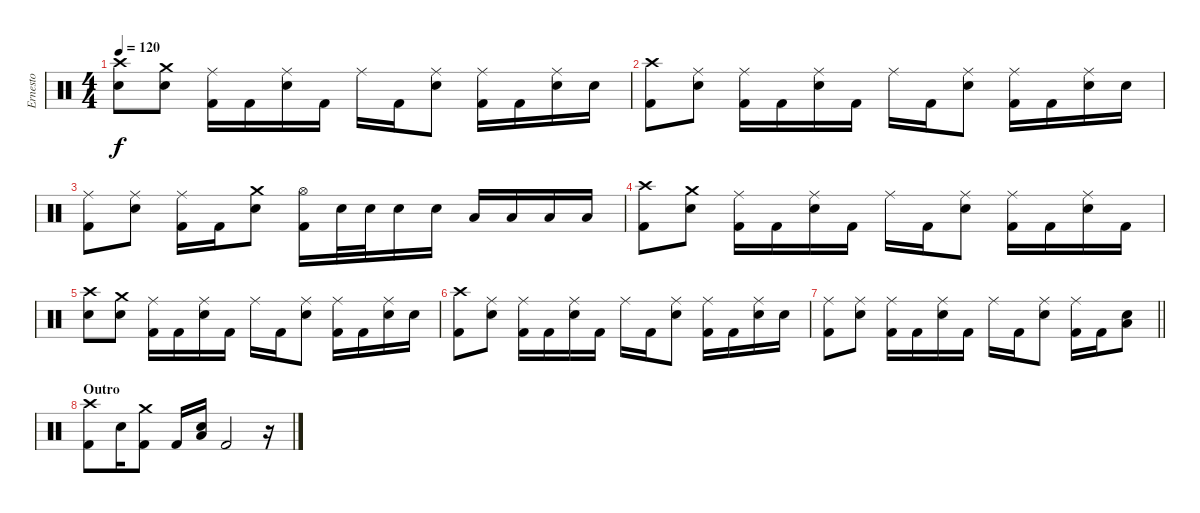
\track ("Ernesto" "Ernesto") {instrument percussion}
\staff
\articulation defaults
\ts (4 4)
\tempo 120
\clef neutral
\ks c
("Crash high (hit)" "Electric Snare (hit)").8{dy f} ("Crash medium (hit)" "Electric Snare (hit)").8 ("Ride (middle)" "Kick (hit) 2").16 "Kick (hit) 2".16 ("Ride (middle)" "Electric Snare (hit)").16 "Kick (hit) 2".16 "Ride (middle)".16 "Kick (hit) 2".16 ("Ride (middle)" "Electric Snare (hit)").8 ("Ride (middle)" "Kick (hit) 2").16 "Kick (hit) 2".16 ("Ride (middle)" "Electric Snare (hit)").16 "Electric Snare (hit)".16 |
("Crash high (hit)" "Kick (hit) 2").8 ("Ride (middle)" "Electric Snare (hit)").8 ("Ride (middle)" "Kick (hit) 2").16 "Kick (hit) 2".16 ("Ride (middle)" "Electric Snare (hit)").16 "Kick (hit) 2".16 "Ride (middle)".16 "Kick (hit) 2".16 ("Ride (middle)" "Electric Snare (hit)").8 ("Ride (middle)" "Kick (hit) 2").16 "Kick (hit) 2".16 ("Ride (middle)" "Electric Snare (hit)").16 "Electric Snare (hit)".16 |
("Ride (middle)" "Kick (hit) 2").8 ("Ride (middle)" "Electric Snare (hit)").8 ("Ride (middle)" "Kick (hit) 2").16 "Kick (hit) 2".16 ("Crash medium (hit)" "Electric Snare (hit)").8 ("Hi-Hat (open)" "Kick (hit) 2").16 "Electric Snare (hit)".32 "Electric Snare (hit)".32 "Electric Snare (hit)".16 "Electric Snare (hit)".16 "Low Tom (hit)".16 "Low Tom (hit)".16 "Low Floor Tom (hit)".16 "Low Floor Tom (hit)".16 |
("Crash high (hit)" "Kick (hit) 2").8 ("Crash medium (hit)" "Electric Snare (hit)").8 ("Ride (middle)" "Kick (hit) 2").16 "Kick (hit) 2".16 ("Ride (middle)" "Electric Snare (hit)").16 "Kick (hit) 2".16 "Ride (middle)".16 "Kick (hit) 2".16 ("Ride (middle)" "Electric Snare (hit)").8 ("Ride (middle)" "Kick (hit) 2").16 "Kick (hit) 2".16 ("Ride (middle)" "Electric Snare (hit)").16 "Kick (hit) 2".16 |
("Crash high (hit)" "Electric Snare (hit)").8 ("Crash medium (hit)" "Electric Snare (hit)").8 ("Ride (middle)" "Kick (hit) 2").16 "Kick (hit) 2".16 ("Ride (middle)" "Electric Snare (hit)").16 "Kick (hit) 2".16 "Ride (middle)".16 "Kick (hit) 2".16 ("Ride (middle)" "Electric Snare (hit)").8 ("Ride (middle)" "Kick (hit) 2").16 "Kick (hit) 2".16 ("Ride (middle)" "Electric Snare (hit)").16 "Electric Snare (hit)".16 |
("Crash high (hit)" "Kick (hit) 2").8 ("Ride (middle)" "Electric Snare (hit)").8 ("Ride (middle)" "Kick (hit) 2").16 "Kick (hit) 2".16 ("Ride (middle)" "Electric Snare (hit)").16 "Kick (hit) 2".16 "Ride (middle)".16 "Kick (hit) 2".16 ("Ride (middle)" "Electric Snare (hit)").8 ("Ride (middle)" "Kick (hit) 2").16 "Kick (hit) 2".16 ("Ride (middle)" "Electric Snare (hit)").16 "Electric Snare (hit)".16 |
\barLineRight lightlight
("Ride (middle)" "Kick (hit) 2").8 ("Ride (middle)" "Electric Snare (hit)").8 ("Ride (middle)" "Kick (hit) 2").16 "Kick (hit) 2".16 ("Ride (middle)" "Electric Snare (hit)").16 "Kick (hit) 2".16 "Ride (middle)".16 "Kick (hit) 2".16 ("Ride (middle)" "Electric Snare (hit)").8 ("Ride (middle)" "Kick (hit) 2").16 "Kick (hit) 2".16 ("Electric Snare (hit)" "Low Floor Tom (hit)").8 |
\section ("" "Outro")
("Crash high (hit)" "Kick (hit) 2").8 "Electric Snare (hit)".16 ("Crash medium (hit)" "Kick (hit) 2").8 "Kick (hit) 2".16 ("Electric Snare (hit)" "Low Floor Tom (hit)").16 "Kick (hit) 2".2 r.16
